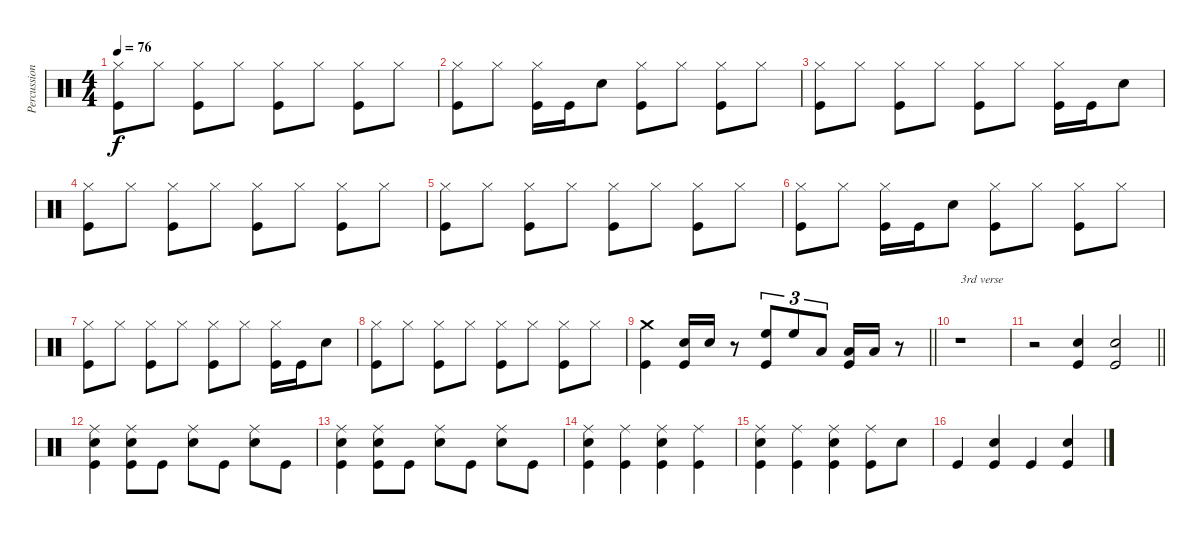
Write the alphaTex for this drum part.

\track ("Percussion" "Percussion") {instrument percussion}
\staff {score}
\articulation defaults
\ts (4 4)
\tempo 76
\clef neutral
\ks c
("Hi-Hat (closed)" "Kick (hit)").8{dy f} "Hi-Hat (closed)".8 ("Hi-Hat (closed)" "Kick (hit)").8 "Hi-Hat (closed)".8 ("Hi-Hat (closed)" "Kick (hit)").8 "Hi-Hat (closed)".8 ("Hi-Hat (closed)" "Kick (hit)").8 "Hi-Hat (closed)".8 |
("Hi-Hat (closed)" "Kick (hit)").8 "Hi-Hat (closed)".8 ("Hi-Hat (closed)" "Kick (hit)").16 "Kick (hit)".16 "Snare (hit) 2".8 ("Hi-Hat (closed)" "Kick (hit)").8 "Hi-Hat (closed)".8 ("Hi-Hat (closed)" "Kick (hit)").8 "Hi-Hat (closed)".8 |
("Hi-Hat (closed)" "Kick (hit)").8 "Hi-Hat (closed)".8 ("Hi-Hat (closed)" "Kick (hit)").8 "Hi-Hat (closed)".8 ("Hi-Hat (closed)" "Kick (hit)").8 "Hi-Hat (closed)".8 ("Hi-Hat (closed)" "Kick (hit)").16 "Kick (hit)".16 "Snare (hit) 2".8 |
("Hi-Hat (closed)" "Kick (hit)").8 "Hi-Hat (closed)".8 ("Hi-Hat (closed)" "Kick (hit)").8 "Hi-Hat (closed)".8 ("Hi-Hat (closed)" "Kick (hit)").8 "Hi-Hat (closed)".8 ("Hi-Hat (closed)" "Kick (hit)").8 "Hi-Hat (closed)".8 |
("Hi-Hat (closed)" "Kick (hit)").8 "Hi-Hat (closed)".8 ("Hi-Hat (closed)" "Kick (hit)").8 "Hi-Hat (closed)".8 ("Hi-Hat (closed)" "Kick (hit)").8 "Hi-Hat (closed)".8 ("Hi-Hat (closed)" "Kick (hit)").8 "Hi-Hat (closed)".8 |
("Hi-Hat (closed)" "Kick (hit)").8 "Hi-Hat (closed)".8 ("Hi-Hat (closed)" "Kick (hit)").16 "Kick (hit)".16 "Snare (hit) 2".8 ("Hi-Hat (closed)" "Kick (hit)").8 "Hi-Hat (closed)".8 ("Hi-Hat (closed)" "Kick (hit)").8 "Hi-Hat (closed)".8 |
("Hi-Hat (closed)" "Kick (hit)").8 "Hi-Hat (closed)".8 ("Hi-Hat (closed)" "Kick (hit)").8 "Hi-Hat (closed)".8 ("Hi-Hat (closed)" "Kick (hit)").8 "Hi-Hat (closed)".8 ("Hi-Hat (closed)" "Kick (hit)").16 "Kick (hit)".16 "Snare (hit) 2".8 |
("Hi-Hat (closed)" "Kick (hit)").8 "Hi-Hat (closed)".8 ("Hi-Hat (closed)" "Kick (hit)").8 "Hi-Hat (closed)".8 ("Hi-Hat (closed)" "Kick (hit)").8 "Hi-Hat (closed)".8 ("Hi-Hat (closed)" "Kick (hit)").8 "Hi-Hat (closed)".8 |
\barLineRight lightlight
("Crash medium (hit)" "Kick (hit)").4 ("Snare (hit) 2" "Kick (hit)").16 "Snare (hit) 2".16 r.8 ("High Floor Tom (hit)" "Kick (hit)").8{tu (3 2)} "High Floor Tom (hit)".8{tu (3 2)} "Low Tom (hit)".8{tu (3 2)} ("Low Tom (hit)" "Kick (hit)").16 "Low Floor Tom (hit)".16 r.8 |
r.1{txt "3rd verse"} |
\barLineRight lightlight
r.2 ("Snare (hit) 2" "Kick (hit)").4 ("Snare (hit) 2" "Kick (hit)").2 |
("Ride (middle)" "Snare (hit) 2" "Kick (hit)").4 ("Ride (middle)" "Snare (hit) 2" "Kick (hit)").8 "Kick (hit)".8 ("Ride (middle)" "Snare (hit) 2").8 "Kick (hit)".8 ("Ride (middle)" "Snare (hit) 2").8 "Kick (hit)".8 |
("Ride (middle)" "Snare (hit) 2" "Kick (hit)").4 ("Ride (middle)" "Snare (hit) 2" "Kick (hit)").8 "Kick (hit)".8 ("Ride (middle)" "Snare (hit) 2").8 "Kick (hit)".8 ("Ride (middle)" "Snare (hit) 2").8 "Kick (hit)".8 |
("Ride (middle)" "Snare (hit) 2" "Kick (hit)").4 ("Ride (middle)" "Kick (hit)").4 ("Ride (middle)" "Snare (hit) 2" "Kick (hit)").4 ("Ride (middle)" "Kick (hit)").4 |
("Ride (middle)" "Snare (hit) 2" "Kick (hit)").4 ("Ride (middle)" "Kick (hit)").4 ("Ride (middle)" "Snare (hit) 2" "Kick (hit)").4 ("Ride (middle)" "Kick (hit)").8 "Snare (hit) 2".8 |
"Kick (hit)".4 ("Snare (hit) 2" "Kick (hit)").4 "Kick (hit)".4 ("Snare (hit) 2" "Kick (hit)").4
